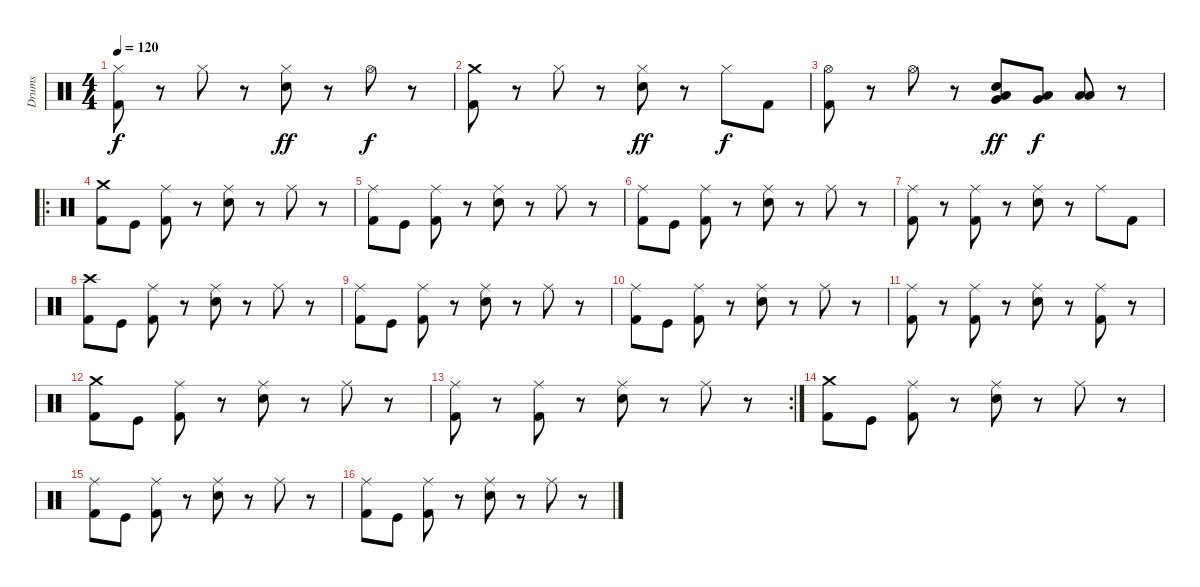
\track ("Drums" "Drums") {instrument percussion}
\staff {score}
\articulation defaults
\ts (4 4)
\tempo 120
\clef neutral
\ks c
("Hi-Hat (closed)" "Kick (hit) 2").8{dy f} r.8 "Hi-Hat (closed)".8 r.8 ("Hi-Hat (closed)" "Electric Snare (hit)").8{dy ff} r.8 "Hi-Hat (open)".8{dy f} r.8 |
("Crash medium (hit)" "Kick (hit) 2").8 r.8 "Hi-Hat (closed)".8 r.8 ("Hi-Hat (closed)" "Electric Snare (hit)").8{dy ff} r.8 "Hi-Hat (closed)".8{dy f} "Kick (hit) 2".8 |
("Hi-Hat (open)" "Kick (hit) 2").8 r.8 "Hi-Hat (open)".8 r.8 ("Very Low Tom (hit)" "Low Tom (hit)" "Electric Snare (hit)").8{dy ff} ("Very Low Tom (hit)" "Low Floor Tom (hit)").8{dy f} ("Low Floor Tom (hit)" "Low Floor Tom (hit)").8 r.8 |
\ro
("Crash medium (hit)" "Kick (hit) 2").8 "Kick (hit)".8 ("Ride (middle)" "Kick (hit) 2").8 r.8 ("Ride (middle)" "Electric Snare (hit)").8 r.8 "Ride (middle)".8 r.8 |
("Ride (middle)" "Kick (hit) 2").8 "Kick (hit)".8 ("Ride (middle)" "Kick (hit) 2").8 r.8 ("Ride (middle)" "Electric Snare (hit)").8 r.8 "Ride (middle)".8 r.8 |
("Ride (middle)" "Kick (hit) 2").8 "Kick (hit)".8 ("Ride (middle)" "Kick (hit) 2").8 r.8 ("Ride (middle)" "Electric Snare (hit)").8 r.8 "Ride (middle)".8 r.8 |
("Ride (middle)" "Kick (hit) 2").8 r.8 ("Ride (middle)" "Kick (hit) 2").8 r.8 ("Ride (middle)" "Electric Snare (hit)").8 r.8 "Ride (middle)".8 "Kick (hit) 2".8 |
("Crash high (hit)" "Kick (hit) 2").8 "Kick (hit)".8 ("Ride (middle)" "Kick (hit) 2").8 r.8 ("Ride (middle)" "Electric Snare (hit)").8 r.8 "Ride (middle)".8 r.8 |
("Ride (middle)" "Kick (hit) 2").8 "Kick (hit)".8 ("Ride (middle)" "Kick (hit) 2").8 r.8 ("Ride (middle)" "Electric Snare (hit)").8 r.8 "Ride (middle)".8 r.8 |
("Ride (middle)" "Kick (hit) 2").8 "Kick (hit)".8 ("Ride (middle)" "Kick (hit) 2").8 r.8 ("Ride (middle)" "Electric Snare (hit)").8 r.8 "Ride (middle)".8 r.8 |
("Ride (middle)" "Kick (hit) 2").8 r.8 ("Ride (middle)" "Kick (hit) 2").8 r.8 ("Ride (middle)" "Electric Snare (hit)").8 r.8 ("Ride (middle)" "Kick (hit) 2").8 r.8 |
("Crash medium (hit)" "Kick (hit) 2").8 "Kick (hit)".8 ("Ride (middle)" "Kick (hit) 2").8 r.8 ("Ride (middle)" "Electric Snare (hit)").8 r.8 "Ride (middle)".8 r.8 |
\rc 2
("Ride (middle)" "Kick (hit) 2").8 r.8 ("Ride (middle)" "Kick (hit) 2").8 r.8 ("Ride (middle)" "Electric Snare (hit)").8 r.8 "Ride (middle)".8 r.8 |
("Crash medium (hit)" "Kick (hit) 2").8 "Kick (hit)".8 ("Ride (middle)" "Kick (hit) 2").8 r.8 ("Ride (middle)" "Electric Snare (hit)").8 r.8 "Ride (middle)".8 r.8 |
("Ride (middle)" "Kick (hit) 2").8 "Kick (hit)".8 ("Ride (middle)" "Kick (hit) 2").8 r.8 ("Ride (middle)" "Electric Snare (hit)").8 r.8 "Ride (middle)".8 r.8 |
("Ride (middle)" "Kick (hit) 2").8 "Kick (hit)".8 ("Ride (middle)" "Kick (hit) 2").8 r.8 ("Ride (middle)" "Electric Snare (hit)").8 r.8 "Ride (middle)".8 r.8
